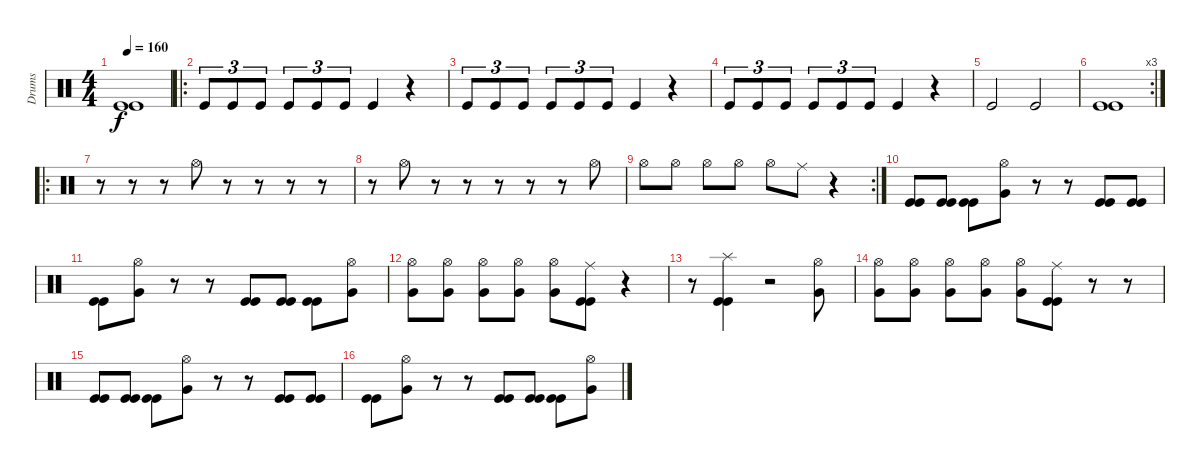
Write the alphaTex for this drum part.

\track ("Drums" "Drums") {instrument percussion}
\staff {score}
\articulation defaults
\ts (4 4)
\tempo 160
\clef neutral
\ks c
("Kick (hit)" "Kick (hit)").1{dy f} |
\ro "Kick (hit)".8{tu (3 2)} "Kick (hit)".8{tu (3 2)} "Kick (hit)".8{tu (3 2)} "Kick (hit)".8{tu (3 2)} "Kick (hit)".8{tu (3 2)} "Kick (hit)".8{tu (3 2)} "Kick (hit)".4
r.4 |
"Kick (hit)".8{tu (3 2)} "Kick (hit)".8{tu (3 2)} "Kick (hit)".8{tu (3 2)} "Kick (hit)".8{tu (3 2)} "Kick (hit)".8{tu (3 2)} "Kick (hit)".8{tu (3 2)} "Kick (hit)".4 r.4 |
"Kick (hit)".8{tu (3 2)} "Kick (hit)".8{tu (3 2)} "Kick (hit)".8{tu (3 2)} "Kick (hit)".8{tu (3 2)} "Kick (hit)".8{tu (3 2)} "Kick (hit)".8{tu (3 2)} "Kick (hit)".4 r.4 |
"Kick (hit)".2 "Kick (hit)".2 |
\rc 3
("Kick (hit)" "Kick (hit)").1 |
\ro
r.8 r.8 r.8 "Hi-Hat (open)".8 r.8 r.8 r.8 r.8 |
r.8 "Hi-Hat (open)".8 r.8 r.8 r.8 r.8 r.8 "Hi-Hat (open)".8 |
\rc 2 "Hi-Hat (open)".8 "Hi-Hat (open)".8 "Hi-Hat (open)".8 "Hi-Hat (open)".8 "Hi-Hat (open)".8 "Ride (middle)".8
r.4 |
("Kick (hit)" "Kick (hit)").8 ("Kick (hit)" "Kick (hit)").8 ("Kick (hit)" "Kick (hit)").8 ("Hi-Hat (open)" "Very Low Tom (hit)").8 r.8 r.8 ("Kick (hit)" "Kick (hit)").8 ("Kick (hit)" "Kick (hit)").8 |
("Kick (hit)" "Kick (hit)").8 ("Hi-Hat (open)" "Very Low Tom (hit)").8 r.8 r.8 ("Kick (hit)" "Kick (hit)").8 ("Kick (hit)" "Kick (hit)").8 ("Kick (hit)" "Kick (hit)").8 ("Hi-Hat (open)" "Very Low Tom (hit)").8 |
("Hi-Hat (open)" "Very Low Tom (hit)").8 ("Hi-Hat (open)" "Very Low Tom (hit)").8 ("Hi-Hat (open)" "Very Low Tom (hit)").8 ("Hi-Hat (open)" "Very Low Tom (hit)").8 ("Hi-Hat (open)" "Very Low Tom (hit)").8 ("Ride (middle)" "Kick (hit)" "Kick (hit)").8 r.4 |
r.8 ("Splash (hit)" "Kick (hit)" "Kick (hit)").4 r.2 ("Hi-Hat (open)" "Very Low Tom (hit)").8 |
("Hi-Hat (open)" "Very Low Tom (hit)").8 ("Hi-Hat (open)" "Very Low Tom (hit)").8 ("Hi-Hat (open)" "Very Low Tom (hit)").8 ("Hi-Hat (open)" "Very Low Tom (hit)").8 ("Hi-Hat (open)" "Very Low Tom (hit)").8 ("Ride (middle)" "Kick (hit)" "Kick (hit)").8 r.8 r.8 |
("Kick (hit)" "Kick (hit)").8 ("Kick (hit)" "Kick (hit)").8 ("Kick (hit)" "Kick (hit)").8 ("Hi-Hat (open)" "Very Low Tom (hit)").8 r.8 r.8 ("Kick (hit)" "Kick (hit)").8 ("Kick (hit)" "Kick (hit)").8 |
("Kick (hit)" "Kick (hit)").8 ("Hi-Hat (open)" "Very Low Tom (hit)").8 r.8 r.8 ("Kick (hit)" "Kick (hit)").8 ("Kick (hit)" "Kick (hit)").8 ("Kick (hit)" "Kick (hit)").8 ("Hi-Hat (open)" "Very Low Tom (hit)").8
